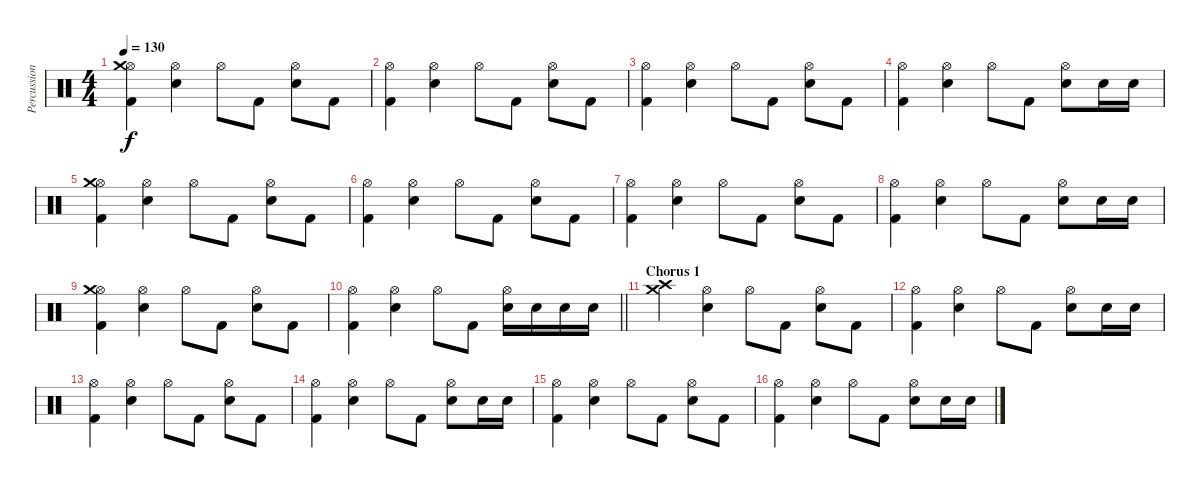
\track ("Percussion" "Percussion") {instrument percussion}
\staff {score}
\articulation defaults
\ts (4 4)
\tempo 130
\clef neutral
\ks c
("Hi-Hat (open)" "Crash medium (hit)" "Kick (hit) 2").4{dy f} ("Hi-Hat (open)" "Electric Snare (hit)").4 "Hi-Hat (open)".8 "Kick (hit) 2".8 ("Hi-Hat (open)" "Electric Snare (hit)").8 "Kick (hit) 2".8 |
("Hi-Hat (open)" "Kick (hit) 2").4 ("Hi-Hat (open)" "Electric Snare (hit)").4 "Hi-Hat (open)".8 "Kick (hit) 2".8 ("Hi-Hat (open)" "Electric Snare (hit)").8 "Kick (hit) 2".8 |
("Hi-Hat (open)" "Kick (hit) 2").4 ("Hi-Hat (open)" "Electric Snare (hit)").4 "Hi-Hat (open)".8 "Kick (hit) 2".8 ("Hi-Hat (open)" "Electric Snare (hit)").8 "Kick (hit) 2".8 |
("Hi-Hat (open)" "Kick (hit) 2").4 ("Hi-Hat (open)" "Electric Snare (hit)").4 "Hi-Hat (open)".8 "Kick (hit) 2".8 ("Hi-Hat (open)" "Electric Snare (hit)").8 "Electric Snare (hit)".16 "Electric Snare (hit)".16 |
("Hi-Hat (open)" "Crash medium (hit)" "Kick (hit) 2").4 ("Hi-Hat (open)" "Electric Snare (hit)").4 "Hi-Hat (open)".8 "Kick (hit) 2".8 ("Hi-Hat (open)" "Electric Snare (hit)").8 "Kick (hit) 2".8 |
("Hi-Hat (open)" "Kick (hit) 2").4 ("Hi-Hat (open)" "Electric Snare (hit)").4 "Hi-Hat (open)".8 "Kick (hit) 2".8 ("Hi-Hat (open)" "Electric Snare (hit)").8 "Kick (hit) 2".8 |
("Hi-Hat (open)" "Kick (hit) 2").4 ("Hi-Hat (open)" "Electric Snare (hit)").4 "Hi-Hat (open)".8 "Kick (hit) 2".8 ("Hi-Hat (open)" "Electric Snare (hit)").8 "Kick (hit) 2".8 |
("Hi-Hat (open)" "Kick (hit) 2").4 ("Hi-Hat (open)" "Electric Snare (hit)").4 "Hi-Hat (open)".8 "Kick (hit) 2".8 ("Hi-Hat (open)" "Electric Snare (hit)").8 "Electric Snare (hit)".16 "Electric Snare (hit)".16 |
("Hi-Hat (open)" "Crash medium (hit)" "Kick (hit) 2").4 ("Hi-Hat (open)" "Electric Snare (hit)").4 "Hi-Hat (open)".8 "Kick (hit) 2".8 ("Hi-Hat (open)" "Electric Snare (hit)").8 "Kick (hit) 2".8 |
\barLineRight lightlight
("Hi-Hat (open)" "Kick (hit) 2").4 ("Hi-Hat (open)" "Electric Snare (hit)").4 "Hi-Hat (open)".8 "Kick (hit) 2".8 ("Hi-Hat (open)" "Electric Snare (hit)").16 "Electric Snare (hit)".16 "Electric Snare (hit)".16 "Electric Snare (hit)".16 |
\section ("" "Chorus 1")
("Crash medium (hit)" "Crash high (hit)").4 ("Hi-Hat (open)" "Electric Snare (hit)").4 "Hi-Hat (open)".8 "Kick (hit) 2".8 ("Hi-Hat (open)" "Electric Snare (hit)").8 "Kick (hit) 2".8 |
("Hi-Hat (open)" "Kick (hit) 2").4 ("Hi-Hat (open)" "Electric Snare (hit)").4 "Hi-Hat (open)".8 "Kick (hit) 2".8 ("Hi-Hat (open)" "Electric Snare (hit)").8 "Electric Snare (hit)".16 "Electric Snare (hit)".16 |
("Hi-Hat (open)" "Kick (hit) 2").4 ("Hi-Hat (open)" "Electric Snare (hit)").4 "Hi-Hat (open)".8 "Kick (hit) 2".8 ("Hi-Hat (open)" "Electric Snare (hit)").8 "Kick (hit) 2".8 |
("Hi-Hat (open)" "Kick (hit) 2").4 ("Hi-Hat (open)" "Electric Snare (hit)").4 "Hi-Hat (open)".8 "Kick (hit) 2".8 ("Hi-Hat (open)" "Electric Snare (hit)").8 "Electric Snare (hit)".16 "Electric Snare (hit)".16 |
("Hi-Hat (open)" "Kick (hit) 2").4 ("Hi-Hat (open)" "Electric Snare (hit)").4 "Hi-Hat (open)".8 "Kick (hit) 2".8 ("Hi-Hat (open)" "Electric Snare (hit)").8 "Kick (hit) 2".8 |
("Hi-Hat (open)" "Kick (hit) 2").4 ("Hi-Hat (open)" "Electric Snare (hit)").4 "Hi-Hat (open)".8 "Kick (hit) 2".8 ("Hi-Hat (open)" "Electric Snare (hit)").8 "Electric Snare (hit)".16 "Electric Snare (hit)".16
